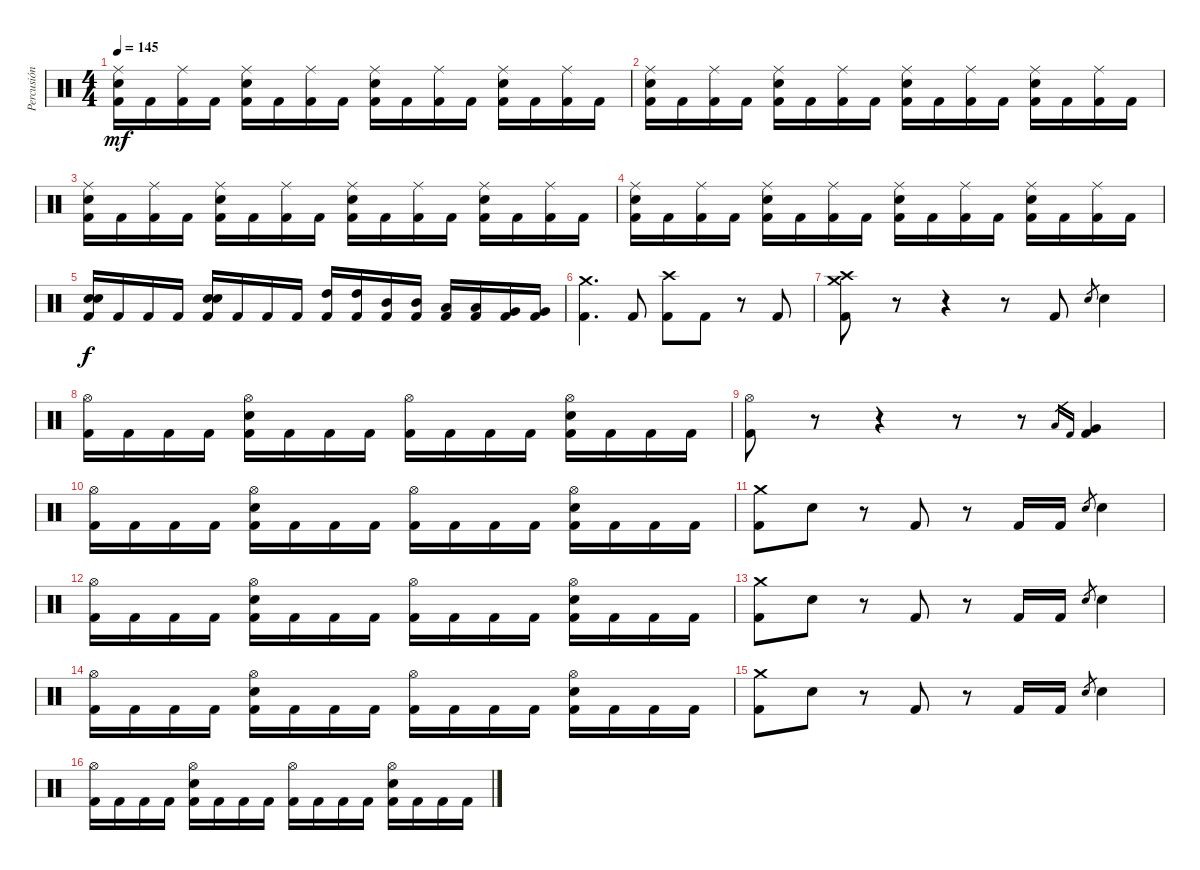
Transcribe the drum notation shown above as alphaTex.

\track ("Percusión" "Percusión") {instrument percussion}
\staff {score}
\articulation defaults
\ts (4 4)
\tempo 145
\clef neutral
\ks c
("Ride (middle)" "Snare (hit) 2" "Kick (hit) 2").16{dy mf} "Kick (hit) 2".16 ("Ride (middle)" "Kick (hit) 2").16 "Kick (hit) 2".16 ("Ride (middle)" "Snare (hit) 2" "Kick (hit) 2").16 "Kick (hit) 2".16 ("Ride (middle)" "Kick (hit) 2").16 "Kick (hit) 2".16 ("Ride (middle)" "Snare (hit) 2" "Kick (hit) 2").16 "Kick (hit) 2".16 ("Ride (middle)" "Kick (hit) 2").16 "Kick (hit) 2".16 ("Ride (middle)" "Snare (hit) 2" "Kick (hit) 2").16 "Kick (hit) 2".16 ("Ride (middle)" "Kick (hit) 2").16 "Kick (hit) 2".16 |
("Ride (middle)" "Snare (hit) 2" "Kick (hit) 2").16 "Kick (hit) 2".16 ("Ride (middle)" "Kick (hit) 2").16 "Kick (hit) 2".16 ("Ride (middle)" "Snare (hit) 2" "Kick (hit) 2").16 "Kick (hit) 2".16 ("Ride (middle)" "Kick (hit) 2").16 "Kick (hit) 2".16 ("Ride (middle)" "Snare (hit) 2" "Kick (hit) 2").16 "Kick (hit) 2".16 ("Ride (middle)" "Kick (hit) 2").16 "Kick (hit) 2".16 ("Ride (middle)" "Snare (hit) 2" "Kick (hit) 2").16 "Kick (hit) 2".16 ("Ride (middle)" "Kick (hit) 2").16 "Kick (hit) 2".16 |
("Ride (middle)" "Snare (hit) 2" "Kick (hit) 2").16 "Kick (hit) 2".16 ("Ride (middle)" "Kick (hit) 2").16 "Kick (hit) 2".16 ("Ride (middle)" "Snare (hit) 2" "Kick (hit) 2").16 "Kick (hit) 2".16 ("Ride (middle)" "Kick (hit) 2").16 "Kick (hit) 2".16 ("Ride (middle)" "Snare (hit) 2" "Kick (hit) 2").16 "Kick (hit) 2".16 ("Ride (middle)" "Kick (hit) 2").16 "Kick (hit) 2".16 ("Ride (middle)" "Snare (hit) 2" "Kick (hit) 2").16 "Kick (hit) 2".16 ("Ride (middle)" "Kick (hit) 2").16 "Kick (hit) 2".16 |
("Ride (middle)" "Snare (hit) 2" "Kick (hit) 2").16 "Kick (hit) 2".16 ("Ride (middle)" "Kick (hit) 2").16 "Kick (hit) 2".16 ("Ride (middle)" "Snare (hit) 2" "Kick (hit) 2").16 "Kick (hit) 2".16 ("Ride (middle)" "Kick (hit) 2").16 "Kick (hit) 2".16 ("Ride (middle)" "Snare (hit) 2" "Kick (hit) 2").16 "Kick (hit) 2".16 ("Ride (middle)" "Kick (hit) 2").16 "Kick (hit) 2".16 ("Ride (middle)" "Snare (hit) 2" "Kick (hit) 2").16 "Kick (hit) 2".16 ("Ride (middle)" "Kick (hit) 2").16 "Kick (hit) 2".16 |
("Snare (hit) 2" "Snare (hit) 2" "Kick (hit) 2").16{dy f} "Kick (hit) 2".16 "Kick (hit) 2".16 "Kick (hit) 2".16 ("Snare (hit) 2" "Snare (hit) 2" "Kick (hit) 2").16 "Kick (hit) 2".16 "Kick (hit) 2".16 "Kick (hit) 2".16 ("High Tom (hit)" "Kick (hit) 2").16 ("High Tom (hit)" "Kick (hit) 2").16 ("Mid Tom (hit)" "Kick (hit) 2").16 ("Mid Tom (hit)" "Kick (hit) 2").16 ("Low Tom (hit)" "Kick (hit) 2").16 ("Low Tom (hit)" "Kick (hit) 2").16 ("Very Low Tom (hit)" "Kick (hit) 2").16 ("Very Low Tom (hit)" "Kick (hit) 2").16 |
("Crash medium (hit)" "Kick (hit) 2").4{d} "Kick (hit) 2".8 ("Crash high (hit)" "Kick (hit) 2").8 "Kick (hit) 2".8 r.8 "Kick (hit) 2".8 |
("Crash medium (hit)" "Crash high (hit)" "Kick (hit) 2").8 r.8 r.4 r.8 "Kick (hit) 2".8 "Snare (hit) 2".8{gr} "Snare (hit) 2".4 |
("Hi-Hat (open)" "Kick (hit) 2").16 "Kick (hit) 2".16 "Kick (hit) 2".16 "Kick (hit) 2".16 ("Hi-Hat (open)" "Snare (hit) 2" "Kick (hit) 2").16 "Kick (hit) 2".16 "Kick (hit) 2".16 "Kick (hit) 2".16 ("Hi-Hat (open)" "Kick (hit) 2").16 "Kick (hit) 2".16 "Kick (hit) 2".16 "Kick (hit) 2".16 ("Hi-Hat (open)" "Snare (hit) 2" "Kick (hit) 2").16 "Kick (hit) 2".16 "Kick (hit) 2".16 "Kick (hit) 2".16 |
("Hi-Hat (open)" "Kick (hit) 2").8 r.8 r.4 r.8 r.8 "Low Tom (hit)".16{gr} "Kick (hit) 2".16{gr} ("Very Low Tom (hit)" "Kick (hit) 2").4 |
("Hi-Hat (open)" "Kick (hit) 2").16 "Kick (hit) 2".16 "Kick (hit) 2".16 "Kick (hit) 2".16 ("Hi-Hat (open)" "Snare (hit) 2" "Kick (hit) 2").16 "Kick (hit) 2".16 "Kick (hit) 2".16 "Kick (hit) 2".16 ("Hi-Hat (open)" "Kick (hit) 2").16 "Kick (hit) 2".16 "Kick (hit) 2".16 "Kick (hit) 2".16 ("Hi-Hat (open)" "Snare (hit) 2" "Kick (hit) 2").16 "Kick (hit) 2".16 "Kick (hit) 2".16 "Kick (hit) 2".16 |
("Crash medium (hit)" "Kick (hit) 2").8 "Snare (hit) 2".8 r.8 "Kick (hit) 2".8 r.8 "Kick (hit) 2".16 "Kick (hit) 2".16 "Snare (hit) 2".8{gr} "Snare (hit) 2".4 |
("Hi-Hat (open)" "Kick (hit) 2").16 "Kick (hit) 2".16 "Kick (hit) 2".16 "Kick (hit) 2".16 ("Hi-Hat (open)" "Snare (hit) 2" "Kick (hit) 2").16 "Kick (hit) 2".16 "Kick (hit) 2".16 "Kick (hit) 2".16 ("Hi-Hat (open)" "Kick (hit) 2").16 "Kick (hit) 2".16 "Kick (hit) 2".16 "Kick (hit) 2".16 ("Hi-Hat (open)" "Snare (hit) 2" "Kick (hit) 2").16 "Kick (hit) 2".16 "Kick (hit) 2".16 "Kick (hit) 2".16 |
("Crash medium (hit)" "Kick (hit) 2").8 "Snare (hit) 2".8 r.8 "Kick (hit) 2".8 r.8 "Kick (hit) 2".16 "Kick (hit) 2".16 "Snare (hit) 2".8{gr} "Snare (hit) 2".4 |
("Hi-Hat (open)" "Kick (hit) 2").16 "Kick (hit) 2".16 "Kick (hit) 2".16 "Kick (hit) 2".16 ("Hi-Hat (open)" "Snare (hit) 2" "Kick (hit) 2").16 "Kick (hit) 2".16 "Kick (hit) 2".16 "Kick (hit) 2".16 ("Hi-Hat (open)" "Kick (hit) 2").16 "Kick (hit) 2".16 "Kick (hit) 2".16 "Kick (hit) 2".16 ("Hi-Hat (open)" "Snare (hit) 2" "Kick (hit) 2").16 "Kick (hit) 2".16 "Kick (hit) 2".16 "Kick (hit) 2".16 |
("Crash medium (hit)" "Kick (hit) 2").8 "Snare (hit) 2".8 r.8 "Kick (hit) 2".8 r.8 "Kick (hit) 2".16 "Kick (hit) 2".16 "Snare (hit) 2".8{gr} "Snare (hit) 2".4 |
("Hi-Hat (open)" "Kick (hit) 2").16 "Kick (hit) 2".16 "Kick (hit) 2".16 "Kick (hit) 2".16 ("Hi-Hat (open)" "Snare (hit) 2" "Kick (hit) 2").16 "Kick (hit) 2".16 "Kick (hit) 2".16 "Kick (hit) 2".16 ("Hi-Hat (open)" "Kick (hit) 2").16 "Kick (hit) 2".16 "Kick (hit) 2".16 "Kick (hit) 2".16 ("Hi-Hat (open)" "Snare (hit) 2" "Kick (hit) 2").16 "Kick (hit) 2".16 "Kick (hit) 2".16 "Kick (hit) 2".16
